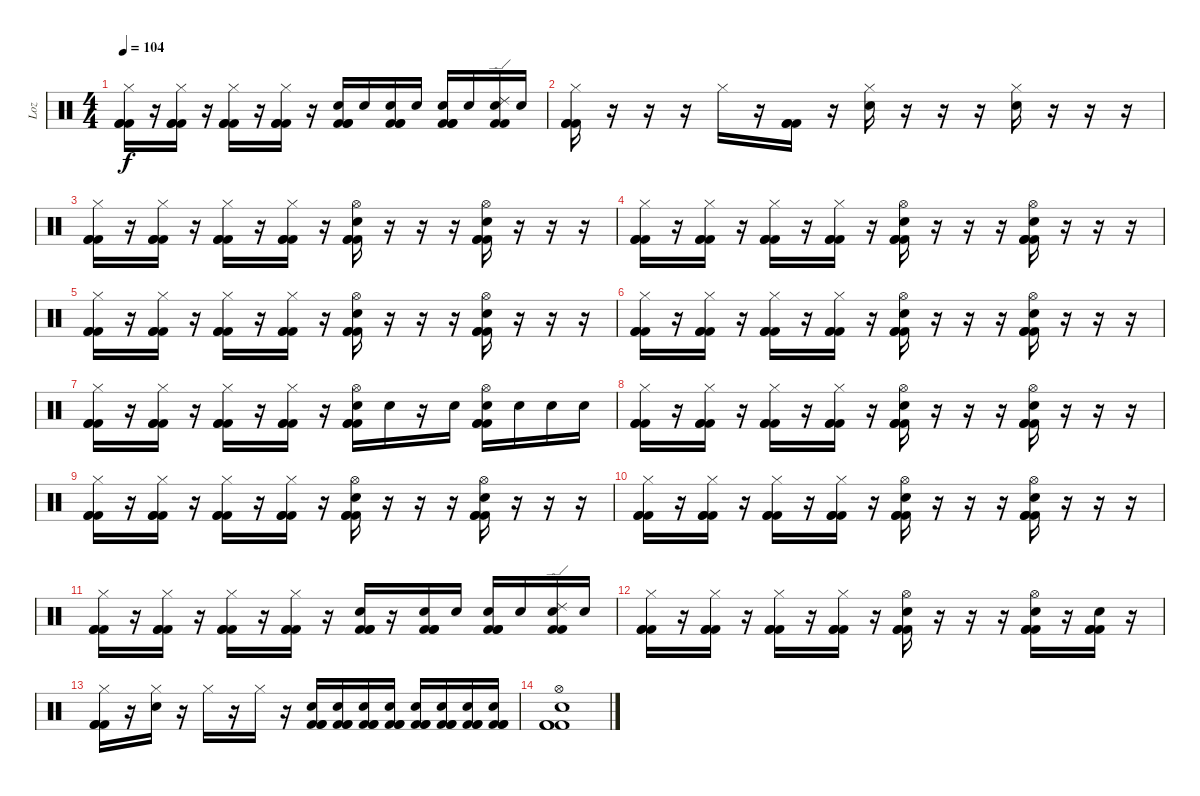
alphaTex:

\track ("Loz" "Loz") {instrument percussion}
\staff {score}
\articulation defaults
\ts (4 4)
\tempo 104
\clef neutral
\ks c
("Hi-Hat (closed)" "Kick (hit) 2" "Kick (hit) 2" "Kick (hit) 2").16{dy f} r.16 ("Hi-Hat (closed)" "Kick (hit) 2" "Kick (hit) 2" "Kick (hit) 2").16 r.16 ("Hi-Hat (closed)" "Kick (hit) 2" "Kick (hit) 2" "Kick (hit) 2").16 r.16 ("Hi-Hat (closed)" "Kick (hit) 2" "Kick (hit) 2" "Kick (hit) 2").16 r.16 ("Electric Snare (hit)" "Kick (hit) 2" "Kick (hit) 2" "Kick (hit) 2").16 "Electric Snare (hit)".16 ("Electric Snare (hit)" "Kick (hit) 2" "Kick (hit) 2" "Kick (hit) 2").16 "Electric Snare (hit)".16 ("Electric Snare (hit)" "Kick (hit) 2" "Kick (hit) 2" "Kick (hit) 2").16 "Electric Snare (hit)".16 ("Electric Snare (hit)" "Kick (hit) 2" "Ride (edge) 2" "Kick (hit) 2").16 "Electric Snare (hit)".16 |
("Hi-Hat (closed)" "Kick (hit) 2" "Kick (hit) 2" "Kick (hit) 2").16 r.16 r.16 r.16 "Hi-Hat (closed)".16 r.16 ("Kick (hit) 2" "Kick (hit) 2" "Kick (hit) 2").16 r.16 ("Hi-Hat (closed)" "Electric Snare (hit)").16 r.16 r.16 r.16 ("Hi-Hat (closed)" "Electric Snare (hit)").16 r.16 r.16 r.16 |
("Hi-Hat (closed)" "Kick (hit) 2" "Kick (hit) 2" "Kick (hit) 2").16 r.16 ("Hi-Hat (closed)" "Kick (hit) 2" "Kick (hit) 2" "Kick (hit) 2").16 r.16 ("Hi-Hat (closed)" "Kick (hit) 2" "Kick (hit) 2" "Kick (hit) 2").16 r.16 ("Hi-Hat (closed)" "Kick (hit) 2" "Kick (hit) 2" "Kick (hit) 2").16 r.16 ("Hi-Hat (open)" "Electric Snare (hit)" "Kick (hit) 2" "Kick (hit) 2" "Kick (hit) 2").16 r.16 r.16 r.16 ("Hi-Hat (open)" "Electric Snare (hit)" "Kick (hit) 2" "Kick (hit) 2" "Kick (hit) 2").16 r.16 r.16 r.16 |
("Hi-Hat (closed)" "Kick (hit) 2" "Kick (hit) 2" "Kick (hit) 2").16 r.16 ("Hi-Hat (closed)" "Kick (hit) 2" "Kick (hit) 2" "Kick (hit) 2").16 r.16 ("Hi-Hat (closed)" "Kick (hit) 2" "Kick (hit) 2" "Kick (hit) 2").16 r.16 ("Hi-Hat (closed)" "Kick (hit) 2" "Kick (hit) 2" "Kick (hit) 2").16 r.16 ("Hi-Hat (open)" "Electric Snare (hit)" "Kick (hit) 2" "Kick (hit) 2" "Kick (hit) 2").16 r.16 r.16 r.16 ("Hi-Hat (open)" "Electric Snare (hit)" "Kick (hit) 2" "Kick (hit) 2" "Kick (hit) 2").16 r.16 r.16 r.16 |
("Hi-Hat (closed)" "Kick (hit) 2" "Kick (hit) 2" "Kick (hit) 2").16 r.16 ("Hi-Hat (closed)" "Kick (hit) 2" "Kick (hit) 2" "Kick (hit) 2").16 r.16 ("Hi-Hat (closed)" "Kick (hit) 2" "Kick (hit) 2" "Kick (hit) 2").16 r.16 ("Hi-Hat (closed)" "Kick (hit) 2" "Kick (hit) 2" "Kick (hit) 2").16 r.16 ("Hi-Hat (open)" "Electric Snare (hit)" "Kick (hit) 2" "Kick (hit) 2" "Kick (hit) 2").16 r.16 r.16 r.16 ("Hi-Hat (open)" "Electric Snare (hit)" "Kick (hit) 2" "Kick (hit) 2" "Kick (hit) 2").16 r.16 r.16 r.16 |
("Hi-Hat (closed)" "Kick (hit) 2" "Kick (hit) 2" "Kick (hit) 2").16 r.16 ("Hi-Hat (closed)" "Kick (hit) 2" "Kick (hit) 2" "Kick (hit) 2").16 r.16 ("Hi-Hat (closed)" "Kick (hit) 2" "Kick (hit) 2" "Kick (hit) 2").16 r.16 ("Hi-Hat (closed)" "Kick (hit) 2" "Kick (hit) 2" "Kick (hit) 2").16 r.16 ("Hi-Hat (open)" "Electric Snare (hit)" "Kick (hit) 2" "Kick (hit) 2" "Kick (hit) 2").16 r.16 r.16 r.16 ("Hi-Hat (open)" "Electric Snare (hit)" "Kick (hit) 2" "Kick (hit) 2" "Kick (hit) 2").16 r.16 r.16 r.16 |
("Hi-Hat (closed)" "Kick (hit) 2" "Kick (hit) 2" "Kick (hit) 2").16 r.16 ("Hi-Hat (closed)" "Kick (hit) 2" "Kick (hit) 2" "Kick (hit) 2").16 r.16 ("Hi-Hat (closed)" "Kick (hit) 2" "Kick (hit) 2" "Kick (hit) 2").16 r.16 ("Hi-Hat (closed)" "Kick (hit) 2" "Kick (hit) 2" "Kick (hit) 2").16 r.16 ("Hi-Hat (open)" "Electric Snare (hit)" "Kick (hit) 2" "Kick (hit) 2" "Kick (hit) 2").16 "Electric Snare (hit)".16 r.16 "Electric Snare (hit)".16 ("Hi-Hat (open)" "Electric Snare (hit)" "Kick (hit) 2" "Kick (hit) 2" "Kick (hit) 2").16 "Electric Snare (hit)".16 "Electric Snare (hit)".16 "Electric Snare (hit)".16 |
("Hi-Hat (closed)" "Kick (hit) 2" "Kick (hit) 2" "Kick (hit) 2").16 r.16 ("Hi-Hat (closed)" "Kick (hit) 2" "Kick (hit) 2" "Kick (hit) 2").16 r.16 ("Hi-Hat (closed)" "Kick (hit) 2" "Kick (hit) 2" "Kick (hit) 2").16 r.16 ("Hi-Hat (closed)" "Kick (hit) 2" "Kick (hit) 2" "Kick (hit) 2").16 r.16 ("Hi-Hat (open)" "Electric Snare (hit)" "Kick (hit) 2" "Kick (hit) 2" "Kick (hit) 2").16 r.16 r.16 r.16 ("Hi-Hat (open)" "Electric Snare (hit)" "Kick (hit) 2" "Kick (hit) 2" "Kick (hit) 2").16 r.16 r.16 r.16 |
("Hi-Hat (closed)" "Kick (hit) 2" "Kick (hit) 2" "Kick (hit) 2").16 r.16 ("Hi-Hat (closed)" "Kick (hit) 2" "Kick (hit) 2" "Kick (hit) 2").16 r.16 ("Hi-Hat (closed)" "Kick (hit) 2" "Kick (hit) 2" "Kick (hit) 2").16 r.16 ("Hi-Hat (closed)" "Kick (hit) 2" "Kick (hit) 2" "Kick (hit) 2").16 r.16 ("Hi-Hat (open)" "Electric Snare (hit)" "Kick (hit) 2" "Kick (hit) 2" "Kick (hit) 2").16 r.16 r.16 r.16 ("Hi-Hat (open)" "Electric Snare (hit)" "Kick (hit) 2" "Kick (hit) 2" "Kick (hit) 2").16 r.16 r.16 r.16 |
("Hi-Hat (closed)" "Kick (hit) 2" "Kick (hit) 2" "Kick (hit) 2").16 r.16 ("Hi-Hat (closed)" "Kick (hit) 2" "Kick (hit) 2" "Kick (hit) 2").16 r.16 ("Hi-Hat (closed)" "Kick (hit) 2" "Kick (hit) 2" "Kick (hit) 2").16 r.16 ("Hi-Hat (closed)" "Kick (hit) 2" "Kick (hit) 2" "Kick (hit) 2").16 r.16 ("Hi-Hat (open)" "Electric Snare (hit)" "Kick (hit) 2" "Kick (hit) 2" "Kick (hit) 2").16 r.16 r.16 r.16 ("Hi-Hat (open)" "Electric Snare (hit)" "Kick (hit) 2" "Kick (hit) 2" "Kick (hit) 2").16 r.16 r.16 r.16 |
("Hi-Hat (closed)" "Kick (hit) 2" "Kick (hit) 2" "Kick (hit) 2").16 r.16 ("Hi-Hat (closed)" "Kick (hit) 2" "Kick (hit) 2" "Kick (hit) 2").16 r.16 ("Hi-Hat (closed)" "Kick (hit) 2" "Kick (hit) 2" "Kick (hit) 2").16 r.16 ("Hi-Hat (closed)" "Kick (hit) 2" "Kick (hit) 2" "Kick (hit) 2").16 r.16 ("Electric Snare (hit)" "Kick (hit) 2" "Kick (hit) 2" "Kick (hit) 2").16 r.16 ("Electric Snare (hit)" "Kick (hit) 2" "Kick (hit) 2" "Kick (hit) 2").16 "Electric Snare (hit)".16 ("Electric Snare (hit)" "Kick (hit) 2" "Kick (hit) 2" "Kick (hit) 2").16 "Electric Snare (hit)".16 ("Electric Snare (hit)" "Kick (hit) 2" "Ride (edge) 2" "Kick (hit) 2").16 "Electric Snare (hit)".16 |
("Hi-Hat (closed)" "Kick (hit) 2" "Kick (hit) 2" "Kick (hit) 2").16 r.16 ("Hi-Hat (closed)" "Kick (hit) 2" "Kick (hit) 2" "Kick (hit) 2").16 r.16 ("Hi-Hat (closed)" "Kick (hit) 2" "Kick (hit) 2" "Kick (hit) 2").16 r.16 ("Hi-Hat (closed)" "Kick (hit) 2" "Kick (hit) 2" "Kick (hit) 2").16 r.16 ("Hi-Hat (open)" "Electric Snare (hit)" "Kick (hit) 2" "Kick (hit) 2" "Kick (hit) 2").16 r.16 r.16 r.16 ("Hi-Hat (open)" "Electric Snare (hit)" "Kick (hit) 2" "Kick (hit) 2" "Kick (hit) 2").16 r.16 ("Electric Snare (hit)" "Kick (hit) 2" "Kick (hit) 2" "Kick (hit) 2").16 r.16 |
("Hi-Hat (closed)" "Kick (hit) 2" "Kick (hit) 2" "Kick (hit) 2").16 r.16 ("Hi-Hat (closed)" "Electric Snare (hit)").16 r.16 "Hi-Hat (closed)".16 r.16 "Hi-Hat (closed)".16 r.16 ("Electric Snare (hit)" "Kick (hit) 2" "Kick (hit) 2" "Kick (hit) 2").16 ("Electric Snare (hit)" "Kick (hit) 2" "Kick (hit) 2" "Kick (hit) 2").16 ("Electric Snare (hit)" "Kick (hit) 2" "Kick (hit) 2" "Kick (hit) 2").16 ("Electric Snare (hit)" "Kick (hit) 2" "Kick (hit) 2" "Kick (hit) 2").16 ("Electric Snare (hit)" "Kick (hit) 2" "Kick (hit) 2" "Kick (hit) 2").16 ("Electric Snare (hit)" "Kick (hit) 2" "Kick (hit) 2" "Kick (hit) 2").16 ("Electric Snare (hit)" "Kick (hit) 2" "Kick (hit) 2" "Kick (hit) 2").16 ("Electric Snare (hit)" "Kick (hit) 2" "Kick (hit) 2" "Kick (hit) 2").16 |
("Hi-Hat (open)" "Electric Snare (hit)" "Kick (hit) 2" "Kick (hit) 2" "Kick (hit) 2").1
